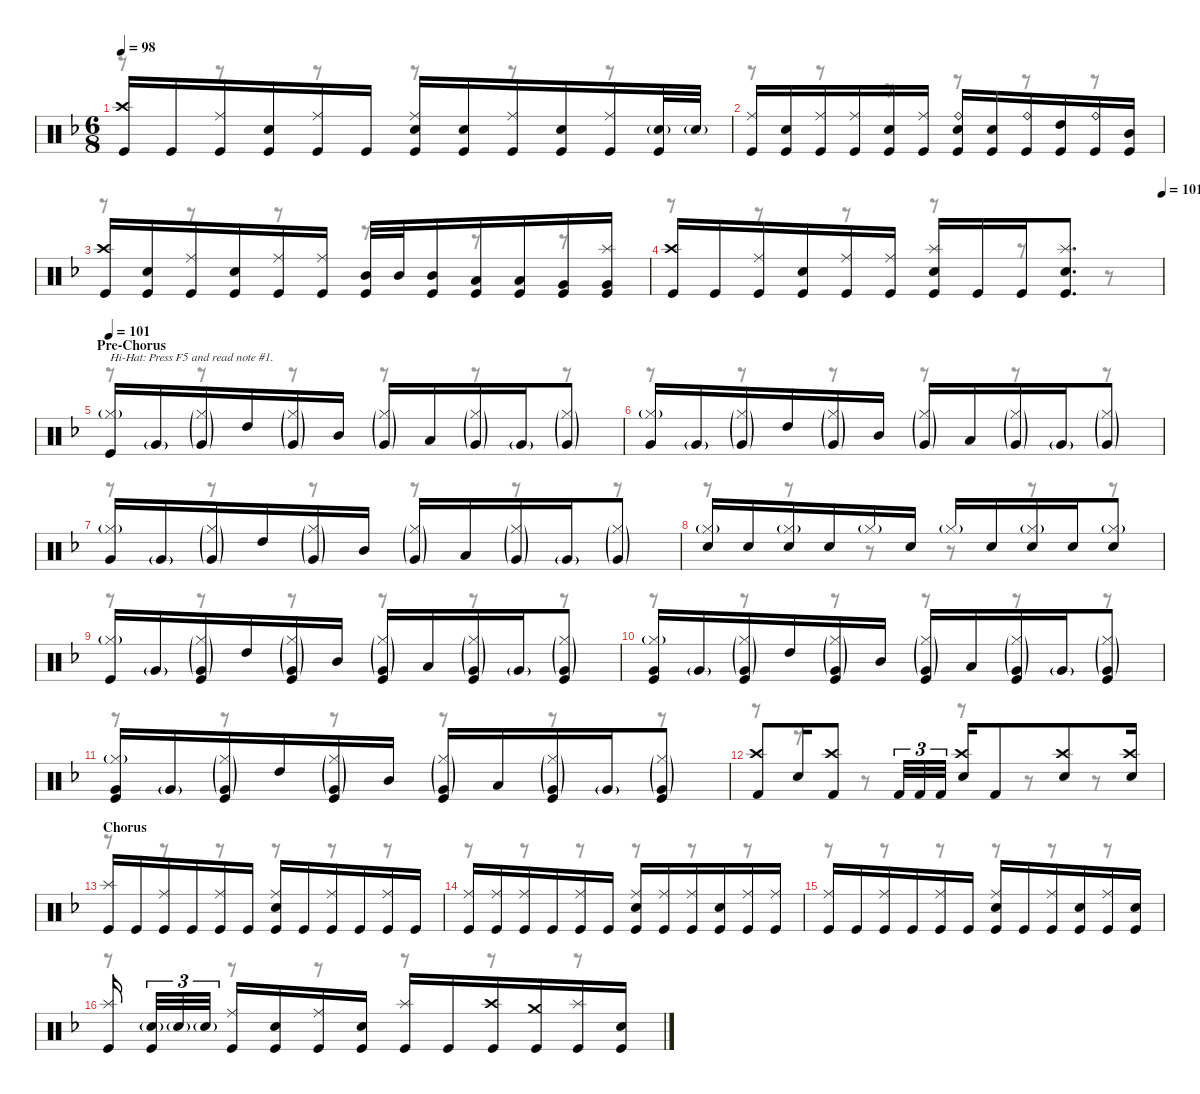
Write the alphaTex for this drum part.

\defaultSystemsLayout 4
\hideDynamics
\bracketExtendMode nobrackets
\singleTrackTrackNamePolicy hidden
\multiTrackTrackNamePolicy hidden
\otherSystemsTrackNameOrientation horizontal
\track ("M. Lopez" "drm.") {instrument percussion}
\staff {score}
\articulation defaults
\voice
\ts (6 8)
\tempo 98
\clef neutral
\ks dminor
("Crash high (hit)"{acc forcenatural} "Kick (hit)"{acc forcenatural}).16{dy f beam Up} "Kick (hit)"{acc forcenatural}.16{beam Up} ("Ride (middle)"{acc forcenatural} "Kick (hit)"{acc forcenatural}).16{beam Up} ("Snare (hit) 2"{acc forcenatural} "Kick (hit)"{acc forcenatural}).16{beam Up} ("Ride (middle)"{acc forcenatural} "Kick (hit)"{acc forcenatural}).16{beam Up} "Kick (hit)"{acc forcenatural}.16{beam Up} ("Ride (middle)"{acc forcenatural} "Snare (hit) 2"{acc forcenatural} "Kick (hit)"{acc forcenatural}).16{beam Up} ("Snare (hit) 2"{acc forcenatural} "Kick (hit)"{acc forcenatural}).16{beam Up} ("Ride (middle)"{acc forcenatural} "Kick (hit)"{acc forcenatural}).16{beam Up} ("Snare (hit) 2"{acc forcenatural} "Kick (hit)"{acc forcenatural}).16{beam Up} ("Ride (middle)"{acc forcenatural} "Kick (hit)"{acc forcenatural}).16{beam Up} ("Snare (hit) 2"{g acc forcenatural} "Kick (hit)"{acc forcenatural}).32{beam Up} "Snare (hit) 2"{g acc forcenatural}.32{dy mf beam Up} |
("Ride (middle)"{acc forcenatural} "Kick (hit)"{acc forcenatural}).16{dy f beam Up} ("Snare (hit) 2"{acc forcenatural} "Kick (hit)"{acc forcenatural}).16{beam Up} ("Ride (middle)"{acc forcenatural} "Kick (hit)"{acc forcenatural}).16{beam Up} ("Ride (middle)"{acc forcenatural} "Kick (hit)"{acc forcenatural}).16{beam Up} ("Snare (hit) 2"{acc forcenatural} "Kick (hit)"{acc forcenatural}).16{beam Up} ("Ride (middle)"{acc forcenatural} "Kick (hit)"{acc forcenatural}).16{beam Up} ("Ride (bell)"{acc forcenatural} "Snare (hit) 2"{acc forcenatural} "Kick (hit)"{acc forcenatural}).16{beam Up} ("Snare (hit) 2"{acc forcenatural} "Kick (hit)"{acc forcenatural}).16{beam Up} ("Ride (bell)"{acc forcenatural} "Kick (hit)"{acc forcenatural}).16{beam Up} ("High Tom (hit)"{acc forcenatural} "Kick (hit)"{acc forcenatural}).16{beam Up} ("Ride (bell)"{acc forcenatural} "Kick (hit)"{acc forcenatural}).16{beam Up} ("Mid Tom (hit)"{acc forcenatural} "Kick (hit)"{acc forcenatural}).16{beam Up} |
("Crash high (hit)"{acc forcenatural} "Kick (hit)"{acc forcenatural}).16{beam Up} ("Snare (hit) 2"{acc forcenatural} "Kick (hit)"{acc forcenatural}).16{dy mf beam Up} ("Ride (middle)"{acc forcenatural} "Kick (hit)"{acc forcenatural}).16{dy f beam Up} ("Snare (hit) 2"{acc forcenatural} "Kick (hit)"{acc forcenatural}).16{beam Up} ("Ride (middle)"{acc forcenatural} "Kick (hit)"{acc forcenatural}).16{beam Up} ("Ride (middle)"{acc forcenatural} "Kick (hit)"{acc forcenatural}).16{beam Up} ("Mid Tom (hit)"{acc forcenatural} "Kick (hit)"{acc forcenatural}).32{dy mf beam Up} "Mid Tom (hit)"{acc forcenatural}.32{beam Up} ("Mid Tom (hit)"{acc forcenatural} "Kick (hit)"{acc forcenatural}).16{beam Up} ("Low Tom (hit)"{acc forcenatural} "Kick (hit)"{acc forcenatural}).16{beam Up} ("Low Tom (hit)"{acc forcenatural} "Kick (hit)"{acc forcenatural}).16{beam Up} ("Very Low Tom (hit)"{acc forcenatural} "Kick (hit)"{acc forcenatural}).16{beam Up} ("Splash (hit)"{acc forcenatural} "Very Low Tom (hit)"{acc forcenatural} "Kick (hit)"{acc forcenatural}).16{beam Up} |
\tempo (101 1)
("Crash high (hit)"{acc forcenatural} "Kick (hit)"{acc forcenatural}).16{dy f beam Up} "Kick (hit)"{acc forcenatural}.16{beam Up} ("Ride (middle)"{acc forcenatural} "Kick (hit)"{acc forcenatural}).16{beam Up} ("Snare (hit) 2"{acc forcenatural} "Kick (hit)"{acc forcenatural}).16{dy mf beam Up} ("Ride (middle)"{acc forcenatural} "Kick (hit)"{acc forcenatural}).16{dy f beam Up} ("Ride (middle)"{acc forcenatural} "Kick (hit)"{acc forcenatural}).16{dy mf beam Up} ("Splash (hit)"{acc forcenatural} "Snare (hit) 2"{acc forcenatural} "Kick (hit)"{acc forcenatural}).16{dy f beam Up} "Kick (hit)"{acc forcenatural}.16{beam Up} "Kick (hit)"{acc forcenatural}.16{beam Up} ("Splash (hit)"{acc forcenatural} "Snare (hit) 2"{acc forcenatural} "Kick (hit)"{acc forcenatural}).8{d beam Up} |
\section ("" "Pre-Chorus")
\tempo 101
("Hi-Hat (closed)"{g acc forcenatural} "Kick (hit)"{acc forcenatural}).16{txt "Hi-Hat: Press F5 and read note #1." dy mf beam Up} "Very Low Tom (hit)"{g acc forcenatural}.16{beam Up} ("Hi-Hat (closed)"{g acc forcenatural} "Very Low Tom (hit)"{g acc forcenatural}).16{beam Up} "High Tom (hit)"{acc forcenatural}.16{beam Up} ("Hi-Hat (closed)"{g acc forcenatural} "Very Low Tom (hit)"{g acc forcenatural}).16{beam Up} "Mid Tom (hit)"{acc forcenatural}.16{beam Up} ("Hi-Hat (closed)"{g acc forcenatural} "Very Low Tom (hit)"{g acc forcenatural}).16{beam Up} "Low Tom (hit)"{acc forcenatural}.16{beam Up} ("Hi-Hat (closed)"{g acc forcenatural} "Very Low Tom (hit)"{g acc forcenatural}).16{beam Up} "Very Low Tom (hit)"{g acc forcenatural}.16{dy mp beam Up} ("Hi-Hat (closed)"{g acc forcenatural} "Very Low Tom (hit)"{g acc forcenatural}).8{dy mf beam Up} |
("Hi-Hat (closed)"{g acc forcenatural} "Very Low Tom (hit)"{acc forcenatural}).16{dy mp beam Up} "Very Low Tom (hit)"{g acc forcenatural}.16{dy mf beam Up} ("Hi-Hat (closed)"{g acc forcenatural} "Very Low Tom (hit)"{g acc forcenatural}).16{beam Up} "High Tom (hit)"{acc forcenatural}.16{dy mp beam Up} ("Hi-Hat (closed)"{g acc forcenatural} "Very Low Tom (hit)"{g acc forcenatural}).16{dy mf beam Up} "Mid Tom (hit)"{acc forcenatural}.16{dy mp beam Up} ("Hi-Hat (closed)"{g acc forcenatural} "Very Low Tom (hit)"{g acc forcenatural}).16{dy mf beam Up} "Low Tom (hit)"{acc forcenatural}.16{dy mp beam Up} ("Hi-Hat (closed)"{g acc forcenatural} "Very Low Tom (hit)"{g acc forcenatural}).16{dy mf beam Up} "Very Low Tom (hit)"{g acc forcenatural}.16{beam Up} ("Hi-Hat (closed)"{g acc forcenatural} "Very Low Tom (hit)"{g acc forcenatural}).8{beam Up} |
("Hi-Hat (closed)"{g acc forcenatural} "Very Low Tom (hit)"{acc forcenatural}).16{dy mp beam Up} "Very Low Tom (hit)"{g acc forcenatural}.16{dy mf beam Up} ("Hi-Hat (closed)"{g acc forcenatural} "Very Low Tom (hit)"{g acc forcenatural}).16{beam Up} "High Tom (hit)"{acc forcenatural}.16{beam Up} ("Hi-Hat (closed)"{g acc forcenatural} "Very Low Tom (hit)"{g acc forcenatural}).16{beam Up} "Mid Tom (hit)"{acc forcenatural}.16{beam Up} ("Hi-Hat (closed)"{g acc forcenatural} "Very Low Tom (hit)"{g acc forcenatural}).16{beam Up} "Low Tom (hit)"{acc forcenatural}.16{beam Up} ("Hi-Hat (closed)"{g acc forcenatural} "Very Low Tom (hit)"{g acc forcenatural}).16{beam Up} "Very Low Tom (hit)"{g acc forcenatural}.16{beam Up} ("Hi-Hat (closed)"{g acc forcenatural} "Very Low Tom (hit)"{g acc forcenatural}).8{beam Up} |
("Hi-Hat (closed)"{g acc forcenatural} "Snare (hit) 2"{acc forcenatural}).16{dy f beam Up} "Snare (hit) 2"{acc forcenatural}.16{beam Up} ("Hi-Hat (closed)"{g acc forcenatural} "Snare (hit) 2"{acc forcenatural}).16{beam Up} "Snare (hit) 2"{acc forcenatural}.16{beam Up} "Hi-Hat (closed)"{g acc forcenatural}.16{dy mf beam Up} "Snare (hit) 2"{acc forcenatural}.16{dy f beam Up} "Hi-Hat (closed)"{g acc forcenatural}.16{dy mf beam Up} "Snare (hit) 2"{acc forcenatural}.16{dy f beam Up} ("Hi-Hat (closed)"{g acc forcenatural} "Snare (hit) 2"{acc forcenatural}).16{beam Up} "Snare (hit) 2"{acc forcenatural}.16{beam Up} ("Hi-Hat (closed)"{g acc forcenatural} "Snare (hit) 2"{acc forcenatural}).8{beam Up} |
("Hi-Hat (closed)"{g acc forcenatural} "Kick (hit)"{acc forcenatural}).16{dy mf beam Up} "Very Low Tom (hit)"{g acc forcenatural}.16{beam Up} ("Hi-Hat (closed)"{g acc forcenatural} "Very Low Tom (hit)"{g acc forcenatural} "Kick (hit)"{acc forcenatural}).16{dy f beam Up} "High Tom (hit)"{acc forcenatural}.16{dy mf beam Up} ("Hi-Hat (closed)"{g acc forcenatural} "Very Low Tom (hit)"{g acc forcenatural} "Kick (hit)"{acc forcenatural}).16{dy f beam Up} "Mid Tom (hit)"{acc forcenatural}.16{dy mf beam Up} ("Hi-Hat (closed)"{g acc forcenatural} "Very Low Tom (hit)"{g acc forcenatural} "Kick (hit)"{acc forcenatural}).16{dy f beam Up} "Low Tom (hit)"{acc forcenatural}.16{dy mf beam Up} ("Hi-Hat (closed)"{g acc forcenatural} "Very Low Tom (hit)"{g acc forcenatural} "Kick (hit)"{acc forcenatural}).16{dy f beam Up} "Very Low Tom (hit)"{g acc forcenatural}.16{dy mp beam Up} ("Hi-Hat (closed)"{g acc forcenatural} "Very Low Tom (hit)"{g acc forcenatural} "Kick (hit)"{acc forcenatural}).8{dy f beam Up} |
("Hi-Hat (closed)"{g acc forcenatural} "Very Low Tom (hit)"{acc forcenatural} "Kick (hit)"{acc forcenatural}).16{dy mp beam Up} "Very Low Tom (hit)"{g acc forcenatural}.16{dy mf beam Up} ("Hi-Hat (closed)"{g acc forcenatural} "Very Low Tom (hit)"{g acc forcenatural} "Kick (hit)"{acc forcenatural}).16{dy f beam Up} "High Tom (hit)"{acc forcenatural}.16{dy mp beam Up} ("Hi-Hat (closed)"{g acc forcenatural} "Very Low Tom (hit)"{g acc forcenatural} "Kick (hit)"{acc forcenatural}).16{dy f beam Up} "Mid Tom (hit)"{acc forcenatural}.16{dy mp beam Up} ("Hi-Hat (closed)"{g acc forcenatural} "Very Low Tom (hit)"{g acc forcenatural} "Kick (hit)"{acc forcenatural}).16{dy f beam Up} "Low Tom (hit)"{acc forcenatural}.16{dy mp beam Up} ("Hi-Hat (closed)"{g acc forcenatural} "Very Low Tom (hit)"{g acc forcenatural} "Kick (hit)"{acc forcenatural}).16{dy f beam Up} "Very Low Tom (hit)"{g acc forcenatural}.16{dy mf beam Up} ("Hi-Hat (closed)"{g acc forcenatural} "Very Low Tom (hit)"{g acc forcenatural} "Kick (hit)"{acc forcenatural}).8{dy f beam Up} |
("Hi-Hat (closed)"{g acc forcenatural} "Very Low Tom (hit)"{acc forcenatural} "Kick (hit)"{acc forcenatural}).16{dy mp beam Up} "Very Low Tom (hit)"{g acc forcenatural}.16{dy mf beam Up} ("Hi-Hat (closed)"{g acc forcenatural} "Very Low Tom (hit)"{g acc forcenatural} "Kick (hit)"{acc forcenatural}).16{dy f beam Up} "High Tom (hit)"{acc forcenatural}.16{dy mf beam Up} ("Hi-Hat (closed)"{g acc forcenatural} "Very Low Tom (hit)"{g acc forcenatural} "Kick (hit)"{acc forcenatural}).16{dy f beam Up} "Mid Tom (hit)"{acc forcenatural}.16{dy mf beam Up} ("Hi-Hat (closed)"{g acc forcenatural} "Very Low Tom (hit)"{g acc forcenatural} "Kick (hit)"{acc forcenatural}).16{dy f beam Up} "Low Tom (hit)"{acc forcenatural}.16{dy mf beam Up} ("Hi-Hat (closed)"{g acc forcenatural} "Very Low Tom (hit)"{g acc forcenatural} "Kick (hit)"{acc forcenatural}).16{dy f beam Up} "Very Low Tom (hit)"{g acc forcenatural}.16{dy mf beam Up} ("Hi-Hat (closed)"{g acc forcenatural} "Very Low Tom (hit)"{g acc forcenatural} "Kick (hit)"{acc forcenatural}).8{dy f beam Up} |
("Crash high (hit)"{acc forcenatural} "Kick (hit) 2"{acc forcenatural}).8{beam Up} "Snare (hit) 2"{acc forcenatural}.16{beam Up} ("Crash high (hit)"{acc forcenatural} "Kick (hit) 2"{acc forcenatural}).8{beam Up} "Kick (hit) 2"{acc forcenatural}.32{tu (3 2) beam Up} "Kick (hit) 2"{acc forcenatural}.32{tu (3 2) beam Up} "Kick (hit) 2"{acc forcenatural}.32{tu (3 2) beam Up} ("Crash high (hit)"{acc forcenatural} "Snare (hit) 2"{acc forcenatural}).16{beam Up} "Kick (hit) 2"{acc forcenatural}.8{beam Up} ("Crash high (hit)"{acc forcenatural} "Snare (hit) 2"{acc forcenatural}).8{beam Up} ("Crash high (hit)"{acc forcenatural} "Snare (hit) 2"{acc forcenatural}).16{beam Up} |
\section ("" "Chorus")
("Splash (hit)"{acc forcenatural} "Kick (hit)"{acc forcenatural}).16{beam Up} "Kick (hit)"{acc forcenatural}.16{beam Up} ("Ride (middle)"{acc forcenatural} "Kick (hit)"{acc forcenatural}).16{beam Up} "Kick (hit)"{acc forcenatural}.16{beam Up} ("Ride (middle)"{acc forcenatural} "Kick (hit)"{acc forcenatural}).16{beam Up} "Kick (hit)"{acc forcenatural}.16{beam Up} ("Ride (middle)"{acc forcenatural} "Snare (hit) 2"{acc forcenatural} "Kick (hit)"{acc forcenatural}).16{beam Up} "Kick (hit)"{acc forcenatural}.16{beam Up} ("Ride (middle)"{acc forcenatural} "Kick (hit)"{acc forcenatural}).16{beam Up} "Kick (hit)"{acc forcenatural}.16{beam Up} ("Ride (middle)"{acc forcenatural} "Kick (hit)"{acc forcenatural}).16{beam Up} "Kick (hit)"{acc forcenatural}.16{beam Up} |
("Ride (middle)"{acc forcenatural} "Kick (hit)"{acc forcenatural}).16{beam Up} ("Ride (middle)"{acc forcenatural} "Kick (hit)"{acc forcenatural}).16{beam Up} ("Ride (middle)"{acc forcenatural} "Kick (hit)"{acc forcenatural}).16{beam Up} "Kick (hit)"{acc forcenatural}.16{beam Up} ("Ride (middle)"{acc forcenatural} "Kick (hit)"{acc forcenatural}).16{beam Up} "Kick (hit)"{acc forcenatural}.16{beam Up} ("Ride (middle)"{acc forcenatural} "Snare (hit) 2"{acc forcenatural} "Kick (hit)"{acc forcenatural}).16{beam Up} ("Ride (middle)"{acc forcenatural} "Kick (hit)"{acc forcenatural}).16{beam Up} ("Ride (middle)"{acc forcenatural} "Kick (hit)"{acc forcenatural}).16{beam Up} ("Snare (hit) 2"{acc forcenatural} "Kick (hit)"{acc forcenatural}).16{beam Up} ("Ride (middle)"{acc forcenatural} "Kick (hit)"{acc forcenatural}).16{beam Up} ("Ride (middle)"{acc forcenatural} "Kick (hit)"{acc forcenatural}).16{beam Up} |
("Ride (middle)"{acc forcenatural} "Kick (hit)"{acc forcenatural}).16{beam Up} "Kick (hit)"{acc forcenatural}.16{beam Up} ("Ride (middle)"{acc forcenatural} "Kick (hit)"{acc forcenatural}).16{beam Up} "Kick (hit)"{acc forcenatural}.16{beam Up} ("Ride (middle)"{acc forcenatural} "Kick (hit)"{acc forcenatural}).16{beam Up} "Kick (hit)"{acc forcenatural}.16{beam Up} ("Ride (middle)"{acc forcenatural} "Snare (hit) 2"{acc forcenatural} "Kick (hit)"{acc forcenatural}).16{beam Up} "Kick (hit)"{acc forcenatural}.16{beam Up} ("Ride (middle)"{acc forcenatural} "Kick (hit)"{acc forcenatural}).16{beam Up} ("Snare (hit) 2"{acc forcenatural} "Kick (hit)"{acc forcenatural}).16{beam Up} ("Ride (middle)"{acc forcenatural} "Kick (hit)"{acc forcenatural}).16{beam Up} ("Snare (hit) 2"{acc forcenatural} "Kick (hit)"{acc forcenatural}).16{beam Up} |
("Splash (hit)"{acc forcenatural} "Kick (hit)"{acc forcenatural}).16{beam Up} ("Snare (hit) 2"{g acc forcenatural} "Kick (hit)"{acc forcenatural}).32{tu (3 2) beam Up} "Snare (hit) 2"{g acc forcenatural}.32{tu (3 2) beam Up} "Snare (hit) 2"{g acc forcenatural}.32{tu (3 2) beam Up} ("Ride (middle)"{acc forcenatural} "Kick (hit)"{acc forcenatural}).16{beam Up} ("Snare (hit) 2"{acc forcenatural} "Kick (hit)"{acc forcenatural}).16{beam Up} ("Ride (middle)"{acc forcenatural} "Kick (hit)"{acc forcenatural}).16{beam Up} ("Snare (hit) 2"{acc forcenatural} "Kick (hit)"{acc forcenatural}).16{beam Up} ("Splash (hit)"{acc forcenatural} "Kick (hit)"{acc forcenatural}).16{beam Up} "Kick (hit)"{acc forcenatural}.16{beam Up} ("Crash high (hit)"{acc forcenatural} "Kick (hit)"{acc forcenatural}).16{beam Up} ("Crash medium (hit)"{acc forcenatural} "Kick (hit)"{acc forcenatural}).16{dy mf beam Up} ("Splash (hit)"{acc forcenatural} "Kick (hit)"{acc forcenatural}).16{dy f beam Up} ("Snare (hit) 2"{acc forcenatural} "Kick (hit)"{acc forcenatural}).16{beam Up}
\voice
\clef neutral
\ottava regular
\simile none
\ks dminor
r.8{dy mf beam Down} r.8{beam Down} r.8{beam Down} r.8{beam Down} r.8{beam Down} r.8{beam Down} |
r.8{beam Down} r.8{beam Down} r.8{beam Down} r.8{beam Down} r.8{beam Down} r.8{beam Down} |
r.8{beam Down} r.8{beam Down} r.8{beam Down} r.8{beam Down} r.8{beam Down} r.8{beam Down} |
r.8{beam Down} r.8{beam Down} r.8{beam Down} r.8{beam Down} r.8{beam Down} r.8{beam Down} |
r.8{beam Down} r.8{beam Down} r.8{beam Down} r.8{beam Down} r.8{beam Down} r.8{beam Down} |
r.8{beam Down} r.8{beam Down} r.8{beam Down} r.8{beam Down} r.8{beam Down} r.8{beam Down} |
r.8{beam Down} r.8{beam Down} r.8{beam Down} r.8{beam Down} r.8{beam Down} r.8{beam Down} |
r.8{beam Down} r.8{beam Down} r.8{beam Down} r.8{beam Down} r.8{beam Down} r.8{beam Down} |
r.8{beam Down} r.8{beam Down} r.8{beam Down} r.8{beam Down} r.8{beam Down} r.8{beam Down} |
r.8{beam Down} r.8{beam Down} r.8{beam Down} r.8{beam Down} r.8{beam Down} r.8{beam Down} |
r.8{beam Down} r.8{beam Down} r.8{beam Down} r.8{beam Down} r.8{beam Down} r.8{beam Down} |
r.8{beam Down} r.8{beam Down} r.8{beam Down} r.8{beam Down} r.8{beam Down} r.8{beam Down} |
r.8{beam Down} r.8{beam Down} r.8{beam Down} r.8{beam Down} r.8{beam Down} r.8{beam Down} |
r.8{beam Down} r.8{beam Down} r.8{beam Down} r.8{beam Down} r.8{beam Down} r.8{beam Down} |
r.8{beam Down} r.8{beam Down} r.8{beam Down} r.8{beam Down} r.8{beam Down} r.8{beam Down} |
r.8{beam Down} r.8{beam Down} r.8{beam Down} r.8{beam Down} r.8{beam Down} r.8{beam Down}
